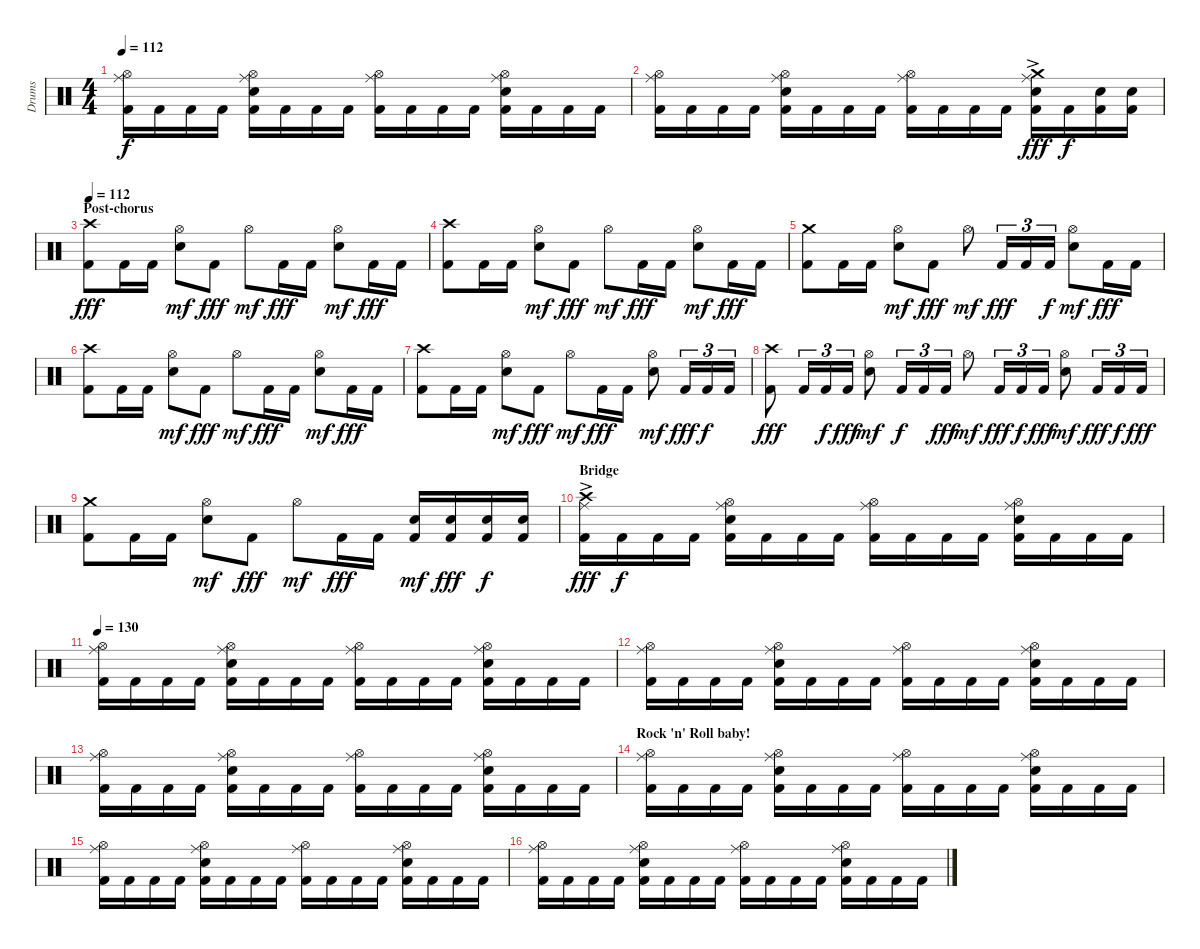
\track ("Drums" "Drums") {instrument percussion}
\staff {score}
\articulation defaults
\ts (4 4)
\tempo 112
\clef neutral
\ks c
("Hi-Hat (open)" "Ride (middle)" "Kick (hit) 2").16{dy f} "Kick (hit) 2".16 "Kick (hit) 2".16 "Kick (hit) 2".16 ("Hi-Hat (open)" "Ride (middle)" "Snare (hit) 2" "Kick (hit) 2").16 "Kick (hit) 2".16 "Kick (hit) 2".16 "Kick (hit) 2".16 ("Hi-Hat (open)" "Ride (middle)" "Kick (hit) 2").16 "Kick (hit) 2".16 "Kick (hit) 2".16 "Kick (hit) 2".16 ("Hi-Hat (open)" "Ride (middle)" "Snare (hit) 2" "Kick (hit) 2").16 "Kick (hit) 2".16 "Kick (hit) 2".16 "Kick (hit) 2".16 |
("Hi-Hat (open)" "Ride (middle)" "Kick (hit) 2").16 "Kick (hit) 2".16 "Kick (hit) 2".16 "Kick (hit) 2".16 ("Hi-Hat (open)" "Ride (middle)" "Snare (hit) 2" "Kick (hit) 2").16 "Kick (hit) 2".16 "Kick (hit) 2".16 "Kick (hit) 2".16 ("Hi-Hat (open)" "Ride (middle)" "Kick (hit) 2").16 "Kick (hit) 2".16 "Kick (hit) 2".16 "Kick (hit) 2".16 ("Crash medium (hit)"{ac} "Ride (middle)" "Snare (hit) 2" "Kick (hit) 2").16{dy fff} "Kick (hit) 2".16{dy f} ("Snare (hit) 2" "Kick (hit) 2").16 ("Snare (hit) 2" "Kick (hit) 2").16 |
\section ("" "Post-chorus")
\tempo 112
("Crash high (hit)" "Kick (hit) 2").8{dy fff} "Kick (hit) 2".16 "Kick (hit) 2".16 ("Snare (hit) 2" "Hi-Hat (open)").8{dy mf} "Kick (hit) 2".8{dy fff} "Hi-Hat (open)".8{dy mf} "Kick (hit) 2".16{dy fff} "Kick (hit) 2".16 ("Snare (hit) 2" "Hi-Hat (open)").8{dy mf} "Kick (hit) 2".16{dy fff} "Kick (hit) 2".16 |
("Crash high (hit)" "Kick (hit) 2").8 "Kick (hit) 2".16 "Kick (hit) 2".16 ("Snare (hit) 2" "Hi-Hat (open)").8{dy mf} "Kick (hit) 2".8{dy fff} "Hi-Hat (open)".8{dy mf} "Kick (hit) 2".16{dy fff} "Kick (hit) 2".16 ("Snare (hit) 2" "Hi-Hat (open)").8{dy mf} "Kick (hit) 2".16{dy fff} "Kick (hit) 2".16 |
("Crash medium (hit)" "Kick (hit) 2").8 "Kick (hit) 2".16 "Kick (hit) 2".16 ("Snare (hit) 2" "Hi-Hat (open)").8{dy mf} "Kick (hit) 2".8{dy fff} "Hi-Hat (open)".8{dy mf} "Kick (hit) 2".16{tu (3 2) dy fff} "Kick (hit) 2".16{tu (3 2)} "Kick (hit) 2".16{tu (3 2) dy f} ("Snare (hit) 2" "Hi-Hat (open)").8{dy mf} "Kick (hit) 2".16{dy fff} "Kick (hit) 2".16 |
("Crash high (hit)" "Kick (hit) 2").8 "Kick (hit) 2".16 "Kick (hit) 2".16 ("Snare (hit) 2" "Hi-Hat (open)").8{dy mf} "Kick (hit) 2".8{dy fff} "Hi-Hat (open)".8{dy mf} "Kick (hit) 2".16{dy fff} "Kick (hit) 2".16 ("Snare (hit) 2" "Hi-Hat (open)").8{dy mf} "Kick (hit) 2".16{dy fff} "Kick (hit) 2".16 |
("Crash high (hit)" "Kick (hit) 2").8 "Kick (hit) 2".16 "Kick (hit) 2".16 ("Snare (hit) 2" "Hi-Hat (open)").8{dy mf} "Kick (hit) 2".8{dy fff} "Hi-Hat (open)".8{dy mf} "Kick (hit) 2".16{dy fff} "Kick (hit) 2".16 ("Snare (hit) 2" "Hi-Hat (open)").8{dy mf} "Kick (hit) 2".16{tu (3 2) dy fff} "Kick (hit) 2".16{tu (3 2) dy f} "Kick (hit) 2".16{tu (3 2)} |
("Crash high (hit)" "Kick (hit) 2").8{dy fff} "Kick (hit) 2".16{tu (3 2)} "Kick (hit) 2".16{tu (3 2) dy f} "Kick (hit) 2".16{tu (3 2) dy fff} ("Snare (hit) 2" "Hi-Hat (open)").8{dy mf} "Kick (hit) 2".16{tu (3 2) dy f} "Kick (hit) 2".16{tu (3 2)} "Kick (hit) 2".16{tu (3 2) dy fff} "Hi-Hat (open)".8{dy mf} "Kick (hit) 2".16{tu (3 2) dy fff} "Kick (hit) 2".16{tu (3 2) dy f} "Kick (hit) 2".16{tu (3 2) dy fff} ("Snare (hit) 2" "Hi-Hat (open)").8{dy mf} "Kick (hit) 2".16{tu (3 2) dy fff} "Kick (hit) 2".16{tu (3 2) dy f} "Kick (hit) 2".16{tu (3 2) dy fff} |
("Crash medium (hit)" "Kick (hit) 2").8 "Kick (hit) 2".16 "Kick (hit) 2".16 ("Snare (hit) 2" "Hi-Hat (open)").8{dy mf} "Kick (hit) 2".8{dy fff} "Hi-Hat (open)".8{dy mf} "Kick (hit) 2".16{dy fff} "Kick (hit) 2".16 ("Kick (hit) 2" "Snare (hit) 2").16{dy mf} ("Kick (hit) 2" "Snare (hit) 2").16{dy fff} ("Kick (hit) 2" "Snare (hit) 2").16{dy f} ("Kick (hit) 2" "Snare (hit) 2").16 |
\section ("" "Bridge")
("Crash high (hit)"{ac} "Ride (middle)" "Kick (hit) 2").16{dy fff} "Kick (hit) 2".16{dy f} "Kick (hit) 2".16 "Kick (hit) 2".16 ("Hi-Hat (open)" "Ride (middle)" "Snare (hit) 2" "Kick (hit) 2").16 "Kick (hit) 2".16 "Kick (hit) 2".16 "Kick (hit) 2".16 ("Hi-Hat (open)" "Ride (middle)" "Kick (hit) 2").16 "Kick (hit) 2".16 "Kick (hit) 2".16 "Kick (hit) 2".16 ("Hi-Hat (open)" "Ride (middle)" "Snare (hit) 2" "Kick (hit) 2").16 "Kick (hit) 2".16 "Kick (hit) 2".16 "Kick (hit) 2".16 |
\tempo 130
("Hi-Hat (open)" "Ride (middle)" "Kick (hit) 2").16 "Kick (hit) 2".16 "Kick (hit) 2".16 "Kick (hit) 2".16 ("Hi-Hat (open)" "Ride (middle)" "Snare (hit) 2" "Kick (hit) 2").16 "Kick (hit) 2".16 "Kick (hit) 2".16 "Kick (hit) 2".16 ("Hi-Hat (open)" "Ride (middle)" "Kick (hit) 2").16 "Kick (hit) 2".16 "Kick (hit) 2".16 "Kick (hit) 2".16 ("Hi-Hat (open)" "Ride (middle)" "Snare (hit) 2" "Kick (hit) 2").16 "Kick (hit) 2".16 "Kick (hit) 2".16 "Kick (hit) 2".16 |
("Hi-Hat (open)" "Ride (middle)" "Kick (hit) 2").16 "Kick (hit) 2".16 "Kick (hit) 2".16 "Kick (hit) 2".16 ("Hi-Hat (open)" "Ride (middle)" "Snare (hit) 2" "Kick (hit) 2").16 "Kick (hit) 2".16 "Kick (hit) 2".16 "Kick (hit) 2".16 ("Hi-Hat (open)" "Ride (middle)" "Kick (hit) 2").16 "Kick (hit) 2".16 "Kick (hit) 2".16 "Kick (hit) 2".16 ("Hi-Hat (open)" "Ride (middle)" "Snare (hit) 2" "Kick (hit) 2").16 "Kick (hit) 2".16 "Kick (hit) 2".16 "Kick (hit) 2".16 |
("Hi-Hat (open)" "Ride (middle)" "Kick (hit) 2").16 "Kick (hit) 2".16 "Kick (hit) 2".16 "Kick (hit) 2".16 ("Hi-Hat (open)" "Ride (middle)" "Snare (hit) 2" "Kick (hit) 2").16 "Kick (hit) 2".16 "Kick (hit) 2".16 "Kick (hit) 2".16 ("Hi-Hat (open)" "Ride (middle)" "Kick (hit) 2").16 "Kick (hit) 2".16 "Kick (hit) 2".16 "Kick (hit) 2".16 ("Hi-Hat (open)" "Ride (middle)" "Snare (hit) 2" "Kick (hit) 2").16 "Kick (hit) 2".16 "Kick (hit) 2".16 "Kick (hit) 2".16 |
\section ("" "Rock 'n' Roll baby!")
("Hi-Hat (open)" "Ride (middle)" "Kick (hit) 2").16 "Kick (hit) 2".16 "Kick (hit) 2".16 "Kick (hit) 2".16 ("Hi-Hat (open)" "Ride (middle)" "Snare (hit) 2" "Kick (hit) 2").16 "Kick (hit) 2".16 "Kick (hit) 2".16 "Kick (hit) 2".16 ("Hi-Hat (open)" "Ride (middle)" "Kick (hit) 2").16 "Kick (hit) 2".16 "Kick (hit) 2".16 "Kick (hit) 2".16 ("Hi-Hat (open)" "Ride (middle)" "Snare (hit) 2" "Kick (hit) 2").16 "Kick (hit) 2".16 "Kick (hit) 2".16 "Kick (hit) 2".16 |
("Hi-Hat (open)" "Ride (middle)" "Kick (hit) 2").16 "Kick (hit) 2".16 "Kick (hit) 2".16 "Kick (hit) 2".16 ("Hi-Hat (open)" "Ride (middle)" "Snare (hit) 2" "Kick (hit) 2").16 "Kick (hit) 2".16 "Kick (hit) 2".16 "Kick (hit) 2".16 ("Hi-Hat (open)" "Ride (middle)" "Kick (hit) 2").16 "Kick (hit) 2".16 "Kick (hit) 2".16 "Kick (hit) 2".16 ("Hi-Hat (open)" "Ride (middle)" "Snare (hit) 2" "Kick (hit) 2").16 "Kick (hit) 2".16 "Kick (hit) 2".16 "Kick (hit) 2".16 |
("Hi-Hat (open)" "Ride (middle)" "Kick (hit) 2").16 "Kick (hit) 2".16 "Kick (hit) 2".16 "Kick (hit) 2".16 ("Hi-Hat (open)" "Ride (middle)" "Snare (hit) 2" "Kick (hit) 2").16 "Kick (hit) 2".16 "Kick (hit) 2".16 "Kick (hit) 2".16 ("Hi-Hat (open)" "Ride (middle)" "Kick (hit) 2").16 "Kick (hit) 2".16 "Kick (hit) 2".16 "Kick (hit) 2".16 ("Hi-Hat (open)" "Ride (middle)" "Snare (hit) 2" "Kick (hit) 2").16 "Kick (hit) 2".16 "Kick (hit) 2".16 "Kick (hit) 2".16
